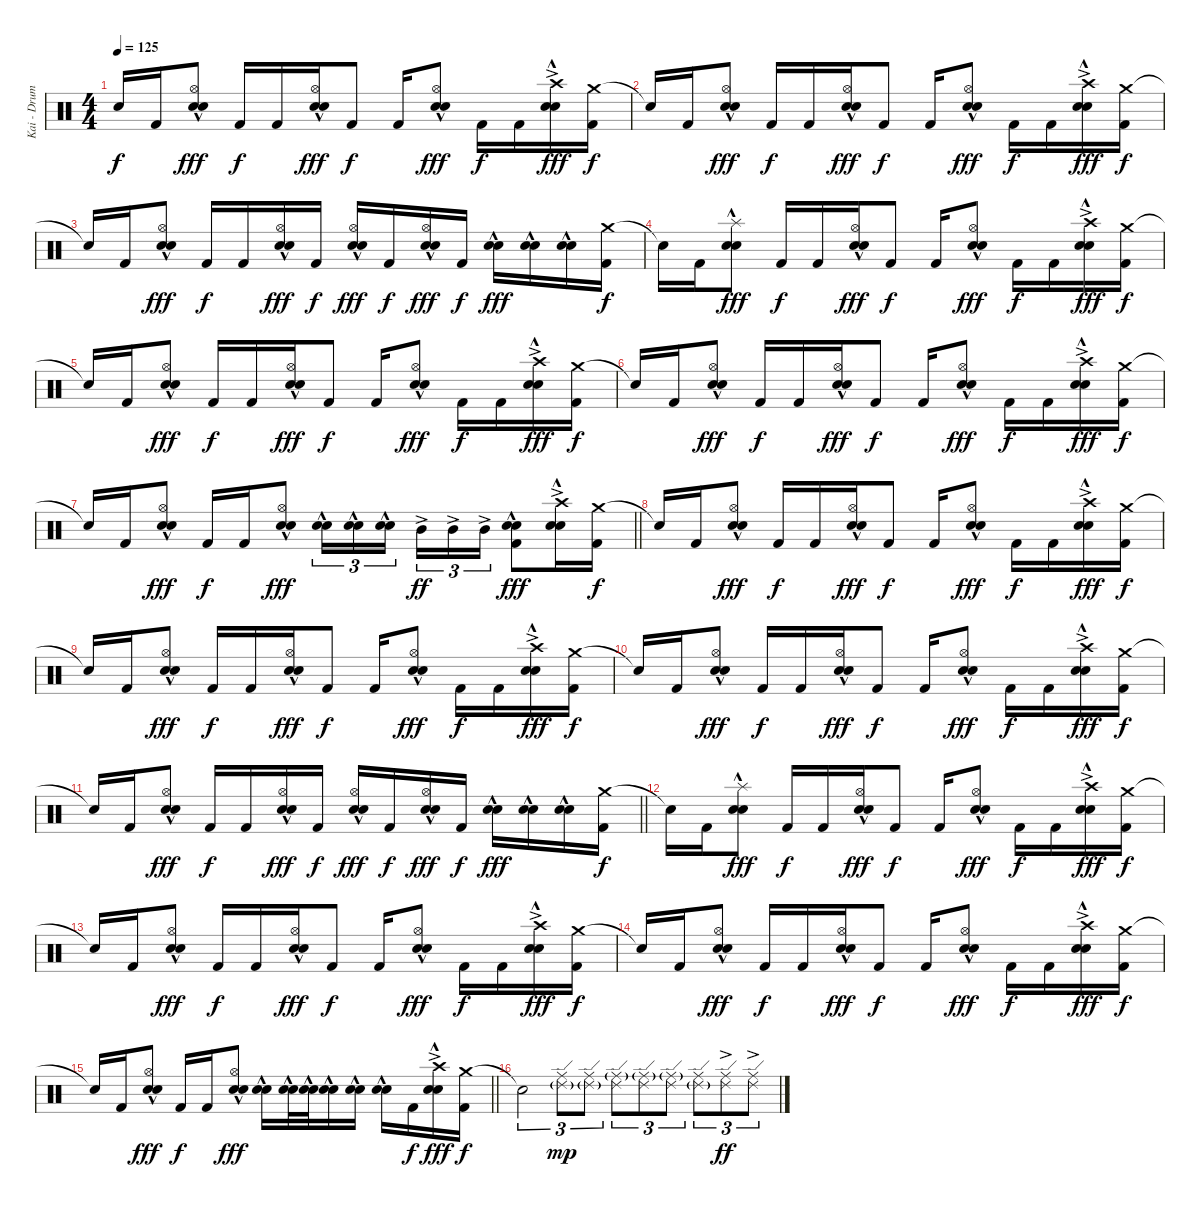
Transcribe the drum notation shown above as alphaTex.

\track ("Kai - Drums" "Kai - Drum") {instrument percussion}
\staff {score}
\articulation defaults
\ts (4 4)
\tempo 125
\clef neutral
\ks c "Snare (hit)"{t}.16{dy f} "Kick (hit) 2".16
("Hi-Hat (open)" "Electric Snare (hit)"{hac} "Snare (hit) 2").8{dy fff} "Kick (hit) 2".16{dy f} "Kick (hit) 2".16 ("Hi-Hat (open)" "Electric Snare (hit)"{hac} "Snare (hit) 2").16{dy fff} "Kick (hit) 2".8{dy f} "Kick (hit) 2".16 ("Hi-Hat (open)" "Electric Snare (hit)"{hac} "Snare (hit) 2").8{dy fff} "Kick (hit) 2".16{dy f} "Kick (hit) 2".16 ("Crash high (hit)"{ac} "Electric Snare (hit)"{hac} "Snare (hit) 2").16{dy fff} ("Crash medium (hit)" "Kick (hit) 2").16{dy f} |
"Snare (hit)"{t}.16 "Kick (hit) 2".16 ("Hi-Hat (open)" "Electric Snare (hit)"{hac} "Snare (hit) 2").8{dy fff} "Kick (hit) 2".16{dy f} "Kick (hit) 2".16 ("Hi-Hat (open)" "Electric Snare (hit)"{hac} "Snare (hit) 2").16{dy fff} "Kick (hit) 2".8{dy f} "Kick (hit) 2".16 ("Hi-Hat (open)" "Electric Snare (hit)"{hac} "Snare (hit) 2").8{dy fff} "Kick (hit) 2".16{dy f} "Kick (hit) 2".16 ("Crash high (hit)"{ac} "Electric Snare (hit)"{hac} "Snare (hit) 2").16{dy fff} ("Crash medium (hit)" "Kick (hit) 2").16{dy f} |
"Snare (hit)"{t}.16 "Kick (hit) 2".16 ("Hi-Hat (open)" "Electric Snare (hit)"{hac} "Snare (hit) 2").8{dy fff} "Kick (hit) 2".16{dy f} "Kick (hit) 2".16 ("Hi-Hat (open)" "Electric Snare (hit)"{hac} "Snare (hit) 2").16{dy fff} "Kick (hit) 2".16{dy f} ("Hi-Hat (open)" "Electric Snare (hit)"{hac} "Snare (hit) 2").16{dy fff} "Kick (hit) 2".16{dy f} ("Hi-Hat (open)" "Electric Snare (hit)"{hac} "Snare (hit) 2").16{dy fff} "Kick (hit) 2".16{dy f} ("Electric Snare (hit)"{hac} "Snare (hit) 2").16{dy fff} ("Electric Snare (hit)"{hac} "Snare (hit) 2").16 ("Electric Snare (hit)"{hac} "Snare (hit) 2").16 ("Crash medium (hit)" "Kick (hit) 2").16{dy f} |
"Snare (hit)"{t}.16 "Kick (hit) 2".16 ("Splash (hit)"{hac} "Electric Snare (hit)"{hac} "Snare (hit) 2").8{dy fff} "Kick (hit) 2".16{dy f} "Kick (hit) 2".16 ("Hi-Hat (open)" "Electric Snare (hit)"{hac} "Snare (hit) 2").16{dy fff} "Kick (hit) 2".8{dy f} "Kick (hit) 2".16 ("Hi-Hat (open)" "Electric Snare (hit)"{hac} "Snare (hit) 2").8{dy fff} "Kick (hit) 2".16{dy f} "Kick (hit) 2".16 ("Crash high (hit)"{ac} "Electric Snare (hit)"{hac} "Snare (hit) 2").16{dy fff} ("Crash medium (hit)" "Kick (hit) 2").16{dy f} |
"Snare (hit)"{t}.16 "Kick (hit) 2".16 ("Hi-Hat (open)" "Electric Snare (hit)"{hac} "Snare (hit) 2").8{dy fff} "Kick (hit) 2".16{dy f} "Kick (hit) 2".16 ("Hi-Hat (open)" "Electric Snare (hit)"{hac} "Snare (hit) 2").16{dy fff} "Kick (hit) 2".8{dy f} "Kick (hit) 2".16 ("Hi-Hat (open)" "Electric Snare (hit)"{hac} "Snare (hit) 2").8{dy fff} "Kick (hit) 2".16{dy f} "Kick (hit) 2".16 ("Crash high (hit)"{ac} "Electric Snare (hit)"{hac} "Snare (hit) 2").16{dy fff} ("Crash medium (hit)" "Kick (hit) 2").16{dy f} |
"Snare (hit)"{t}.16 "Kick (hit) 2".16 ("Hi-Hat (open)" "Electric Snare (hit)"{hac} "Snare (hit) 2").8{dy fff} "Kick (hit) 2".16{dy f} "Kick (hit) 2".16 ("Hi-Hat (open)" "Electric Snare (hit)"{hac} "Snare (hit) 2").16{dy fff} "Kick (hit) 2".8{dy f} "Kick (hit) 2".16 ("Hi-Hat (open)" "Electric Snare (hit)"{hac} "Snare (hit) 2").8{dy fff} "Kick (hit) 2".16{dy f} "Kick (hit) 2".16 ("Crash high (hit)"{ac} "Electric Snare (hit)"{hac} "Snare (hit) 2").16{dy fff} ("Crash medium (hit)" "Kick (hit) 2").16{dy f} |
\barLineRight lightlight "Snare (hit)"{t}.16 "Kick (hit) 2".16
("Hi-Hat (open)" "Electric Snare (hit)"{hac} "Snare (hit) 2").8{dy fff} "Kick (hit) 2".16{dy f} "Kick (hit) 2".16 ("Hi-Hat (open)" "Electric Snare (hit)"{hac} "Snare (hit) 2").8{dy fff} ("Electric Snare (hit)"{hac} "Snare (hit) 2").16{tu (3 2)} ("Electric Snare (hit)"{hac} "Snare (hit) 2").16{tu (3 2)} ("Electric Snare (hit)"{hac} "Snare (hit) 2").16{tu (3 2) beam splitsecondary} "Mid Tom (hit)"{ac}.16{tu (3 2) dy ff} "Mid Tom (hit)"{ac}.16{tu (3 2)} "Mid Tom (hit)"{ac}.16{tu (3 2)} ("Electric Snare (hit)"{hac} "Snare (hit) 2" "Kick (hit) 2").8{dy fff} ("Crash high (hit)"{ac} "Electric Snare (hit)"{hac} "Snare (hit) 2").16 ("Crash medium (hit)" "Kick (hit) 2").16{dy f} |
\section ("" "")
"Snare (hit)"{t}.16 "Kick (hit) 2".16 ("Hi-Hat (open)" "Electric Snare (hit)"{hac} "Snare (hit) 2").8{dy fff} "Kick (hit) 2".16{dy f} "Kick (hit) 2".16 ("Hi-Hat (open)" "Electric Snare (hit)"{hac} "Snare (hit) 2").16{dy fff} "Kick (hit) 2".8{dy f} "Kick (hit) 2".16 ("Hi-Hat (open)" "Electric Snare (hit)"{hac} "Snare (hit) 2").8{dy fff} "Kick (hit) 2".16{dy f} "Kick (hit) 2".16 ("Crash high (hit)"{ac} "Electric Snare (hit)"{hac} "Snare (hit) 2").16{dy fff} ("Crash medium (hit)" "Kick (hit) 2").16{dy f} |
"Snare (hit)"{t}.16 "Kick (hit) 2".16 ("Hi-Hat (open)" "Electric Snare (hit)"{hac} "Snare (hit) 2").8{dy fff} "Kick (hit) 2".16{dy f} "Kick (hit) 2".16 ("Hi-Hat (open)" "Electric Snare (hit)"{hac} "Snare (hit) 2").16{dy fff} "Kick (hit) 2".8{dy f} "Kick (hit) 2".16 ("Hi-Hat (open)" "Electric Snare (hit)"{hac} "Snare (hit) 2").8{dy fff} "Kick (hit) 2".16{dy f} "Kick (hit) 2".16 ("Crash high (hit)"{ac} "Electric Snare (hit)"{hac} "Snare (hit) 2").16{dy fff} ("Crash medium (hit)" "Kick (hit) 2").16{dy f} |
"Snare (hit)"{t}.16 "Kick (hit) 2".16 ("Hi-Hat (open)" "Electric Snare (hit)"{hac} "Snare (hit) 2").8{dy fff} "Kick (hit) 2".16{dy f} "Kick (hit) 2".16 ("Hi-Hat (open)" "Electric Snare (hit)"{hac} "Snare (hit) 2").16{dy fff} "Kick (hit) 2".8{dy f} "Kick (hit) 2".16 ("Hi-Hat (open)" "Electric Snare (hit)"{hac} "Snare (hit) 2").8{dy fff} "Kick (hit) 2".16{dy f} "Kick (hit) 2".16 ("Crash high (hit)"{ac} "Electric Snare (hit)"{hac} "Snare (hit) 2").16{dy fff} ("Crash medium (hit)" "Kick (hit) 2").16{dy f} |
\barLineRight lightlight "Snare (hit)"{t}.16 "Kick (hit) 2".16
("Hi-Hat (open)" "Electric Snare (hit)"{hac} "Snare (hit) 2").8{dy fff} "Kick (hit) 2".16{dy f} "Kick (hit) 2".16 ("Hi-Hat (open)" "Electric Snare (hit)"{hac} "Snare (hit) 2").16{dy fff} "Kick (hit) 2".16{dy f} ("Hi-Hat (open)" "Electric Snare (hit)"{hac} "Snare (hit) 2").16{dy fff} "Kick (hit) 2".16{dy f} ("Hi-Hat (open)" "Electric Snare (hit)"{hac} "Snare (hit) 2").16{dy fff} "Kick (hit) 2".16{dy f} ("Electric Snare (hit)"{hac} "Snare (hit) 2").16{dy fff} ("Electric Snare (hit)"{hac} "Snare (hit) 2").16 ("Electric Snare (hit)"{hac} "Snare (hit) 2").16 ("Crash medium (hit)" "Kick (hit) 2").16{dy f} |
"Snare (hit)"{t}.16 "Kick (hit) 2".16 ("Splash (hit)"{hac} "Electric Snare (hit)"{hac} "Snare (hit) 2").8{dy fff} "Kick (hit) 2".16{dy f} "Kick (hit) 2".16 ("Hi-Hat (open)" "Electric Snare (hit)"{hac} "Snare (hit) 2").16{dy fff} "Kick (hit) 2".8{dy f} "Kick (hit) 2".16 ("Hi-Hat (open)" "Electric Snare (hit)"{hac} "Snare (hit) 2").8{dy fff} "Kick (hit) 2".16{dy f} "Kick (hit) 2".16 ("Crash high (hit)"{ac} "Electric Snare (hit)"{hac} "Snare (hit) 2").16{dy fff} ("Crash medium (hit)" "Kick (hit) 2").16{dy f} |
"Snare (hit)"{t}.16 "Kick (hit) 2".16 ("Hi-Hat (open)" "Electric Snare (hit)"{hac} "Snare (hit) 2").8{dy fff} "Kick (hit) 2".16{dy f} "Kick (hit) 2".16 ("Hi-Hat (open)" "Electric Snare (hit)"{hac} "Snare (hit) 2").16{dy fff} "Kick (hit) 2".8{dy f} "Kick (hit) 2".16 ("Hi-Hat (open)" "Electric Snare (hit)"{hac} "Snare (hit) 2").8{dy fff} "Kick (hit) 2".16{dy f} "Kick (hit) 2".16 ("Crash high (hit)"{ac} "Electric Snare (hit)"{hac} "Snare (hit) 2").16{dy fff} ("Crash medium (hit)" "Kick (hit) 2").16{dy f} |
"Snare (hit)"{t}.16 "Kick (hit) 2".16 ("Hi-Hat (open)" "Electric Snare (hit)"{hac} "Snare (hit) 2").8{dy fff} "Kick (hit) 2".16{dy f} "Kick (hit) 2".16 ("Hi-Hat (open)" "Electric Snare (hit)"{hac} "Snare (hit) 2").16{dy fff} "Kick (hit) 2".8{dy f} "Kick (hit) 2".16 ("Hi-Hat (open)" "Electric Snare (hit)"{hac} "Snare (hit) 2").8{dy fff} "Kick (hit) 2".16{dy f} "Kick (hit) 2".16 ("Crash high (hit)"{ac} "Electric Snare (hit)"{hac} "Snare (hit) 2").16{dy fff} ("Crash medium (hit)" "Kick (hit) 2").16{dy f} |
\barLineRight lightlight "Snare (hit)"{t}.16 "Kick (hit) 2".16
("Hi-Hat (open)" "Electric Snare (hit)"{hac} "Snare (hit) 2").8{dy fff} "Kick (hit) 2".16{dy f} "Kick (hit) 2".16 ("Hi-Hat (open)" "Electric Snare (hit)"{hac} "Snare (hit) 2").8{dy fff} ("Electric Snare (hit)"{hac} "Snare (hit) 2").16 ("Electric Snare (hit)"{hac} "Snare (hit) 2").32 ("Electric Snare (hit)"{hac} "Snare (hit) 2").32 ("Electric Snare (hit)"{hac} "Snare (hit) 2").16 ("Electric Snare (hit)"{hac} "Snare (hit) 2").16 ("Electric Snare (hit)"{hac} "Snare (hit) 2").16 "Kick (hit) 2".16{dy f} ("Crash high (hit)"{ac} "Electric Snare (hit)"{hac} "Snare (hit) 2").16{dy fff} ("Crash medium (hit)" "Kick (hit) 2").16{dy f} |
\section ("" "")
"Snare (hit)"{t}.2{tu (3 2)} ("Ride (edge) 2"{g} "Ride (middle)").8{tu (3 2) dy mp} ("Ride (edge) 2"{g} "Ride (middle)").8{tu (3 2)} ("Ride (edge) 2" "Ride (middle)"{g}).8{tu (3 2)} ("Ride (edge) 2" "Ride (middle)"{g}).8{tu (3 2)} ("Ride (edge) 2" "Ride (middle)"{g}).8{tu (3 2)} ("Ride (edge) 2"{g} "Ride (middle)").8{tu (3 2)} ("Ride (edge) 2" "Ride (middle)"{ac}).8{tu (3 2) dy ff} ("Ride (edge) 2" "Ride (middle)"{ac}).8{tu (3 2)}
